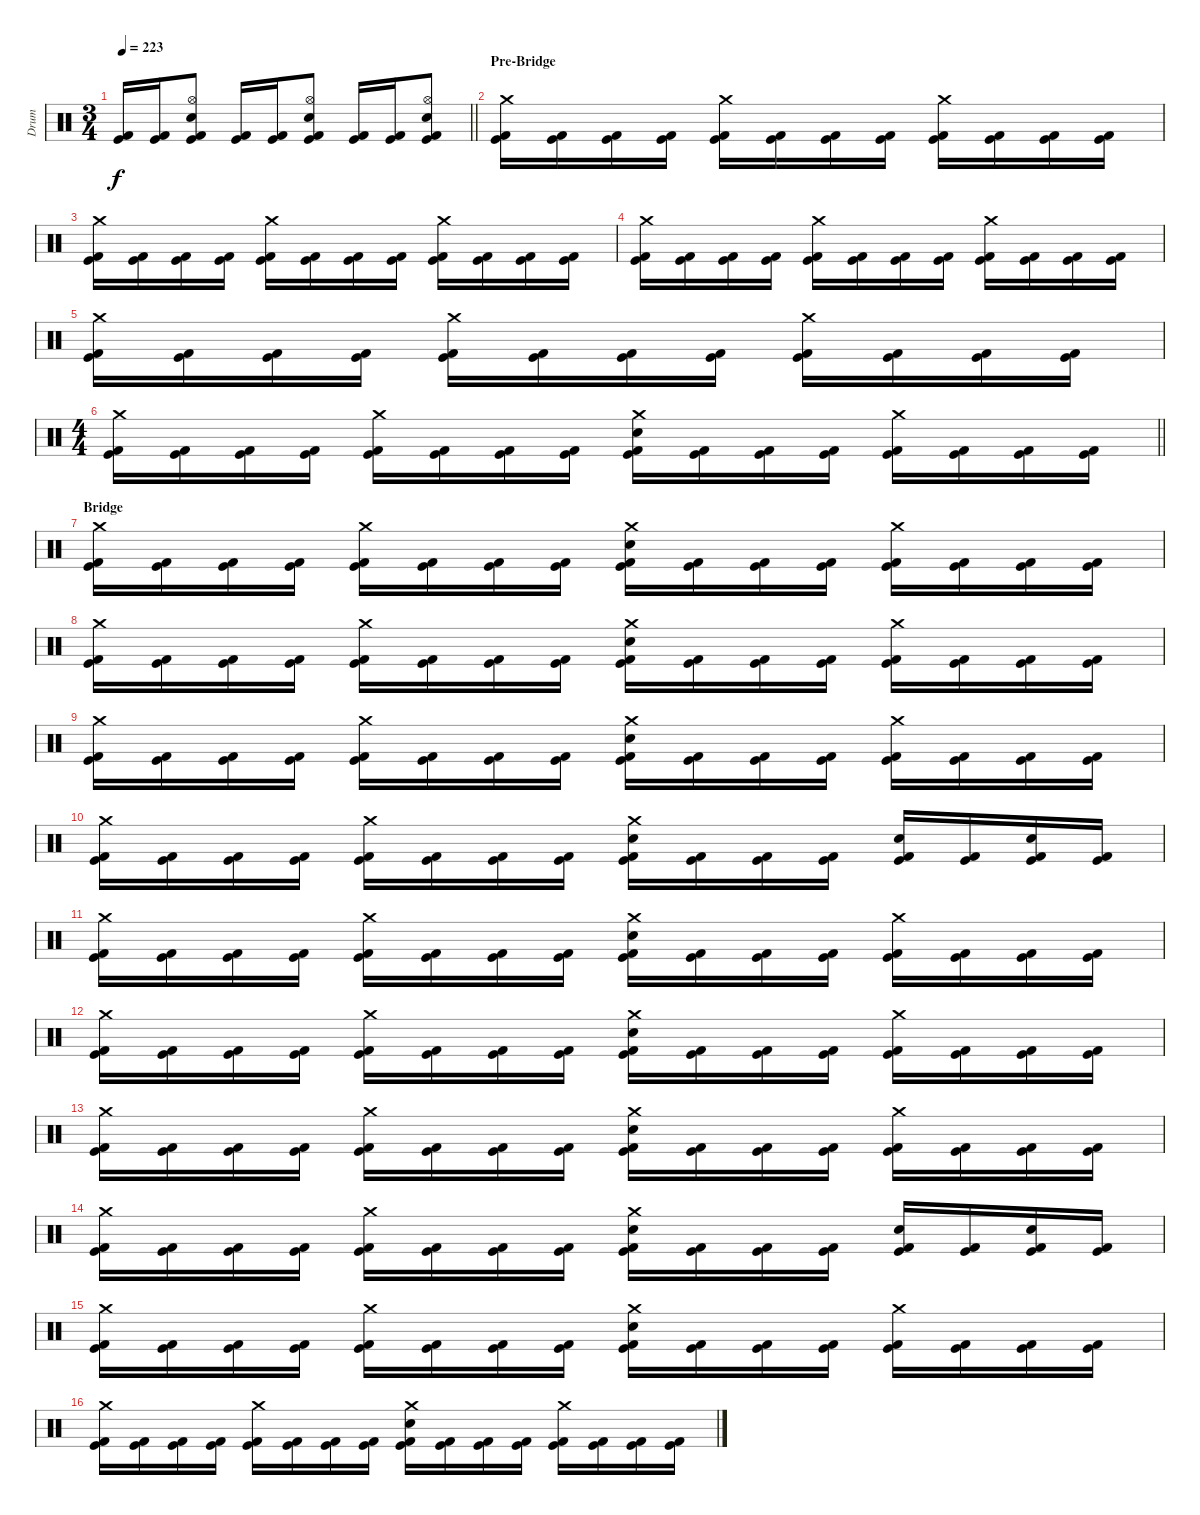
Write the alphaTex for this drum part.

\track ("Drum" "Drum") {instrument percussion}
\staff {score}
\articulation defaults
\ts (3 4)
\tempo 223
\clef neutral
\barLineRight lightlight
\ks c
("Kick (hit)" "Kick (hit) 2").16{dy f} ("Kick (hit)" "Kick (hit) 2").16 ("Hi-Hat (open)" "Electric Snare (hit)" "Kick (hit)" "Kick (hit) 2").8 ("Kick (hit)" "Kick (hit) 2").16 ("Kick (hit)" "Kick (hit) 2").16 ("Hi-Hat (open)" "Electric Snare (hit)" "Kick (hit)" "Kick (hit) 2").8 ("Kick (hit)" "Kick (hit) 2").16 ("Kick (hit)" "Kick (hit) 2").16 ("Hi-Hat (open)" "Electric Snare (hit)" "Kick (hit)" "Kick (hit) 2").8 |
\section ("" "Pre-Bridge")
("Crash medium (hit)" "Kick (hit)" "Kick (hit) 2").16 ("Kick (hit)" "Kick (hit) 2").16 ("Kick (hit)" "Kick (hit) 2").16 ("Kick (hit)" "Kick (hit) 2").16 ("Crash medium (hit)" "Kick (hit)" "Kick (hit) 2").16 ("Kick (hit)" "Kick (hit) 2").16 ("Kick (hit)" "Kick (hit) 2").16 ("Kick (hit)" "Kick (hit) 2").16 ("Crash medium (hit)" "Kick (hit)" "Kick (hit) 2").16 ("Kick (hit)" "Kick (hit) 2").16 ("Kick (hit)" "Kick (hit) 2").16 ("Kick (hit)" "Kick (hit) 2").16 |
("Crash medium (hit)" "Kick (hit)" "Kick (hit) 2").16 ("Kick (hit)" "Kick (hit) 2").16 ("Kick (hit)" "Kick (hit) 2").16 ("Kick (hit)" "Kick (hit) 2").16 ("Crash medium (hit)" "Kick (hit)" "Kick (hit) 2").16 ("Kick (hit)" "Kick (hit) 2").16 ("Kick (hit)" "Kick (hit) 2").16 ("Kick (hit)" "Kick (hit) 2").16 ("Crash medium (hit)" "Kick (hit)" "Kick (hit) 2").16 ("Kick (hit)" "Kick (hit) 2").16 ("Kick (hit)" "Kick (hit) 2").16 ("Kick (hit)" "Kick (hit) 2").16 |
("Crash medium (hit)" "Kick (hit)" "Kick (hit) 2").16 ("Kick (hit)" "Kick (hit) 2").16 ("Kick (hit)" "Kick (hit) 2").16 ("Kick (hit)" "Kick (hit) 2").16 ("Crash medium (hit)" "Kick (hit)" "Kick (hit) 2").16 ("Kick (hit)" "Kick (hit) 2").16 ("Kick (hit)" "Kick (hit) 2").16 ("Kick (hit)" "Kick (hit) 2").16 ("Crash medium (hit)" "Kick (hit)" "Kick (hit) 2").16 ("Kick (hit)" "Kick (hit) 2").16 ("Kick (hit)" "Kick (hit) 2").16 ("Kick (hit)" "Kick (hit) 2").16 |
("Crash medium (hit)" "Kick (hit)" "Kick (hit) 2").16 ("Kick (hit)" "Kick (hit) 2").16 ("Kick (hit)" "Kick (hit) 2").16 ("Kick (hit)" "Kick (hit) 2").16 ("Crash medium (hit)" "Kick (hit)" "Kick (hit) 2").16 ("Kick (hit)" "Kick (hit) 2").16 ("Kick (hit)" "Kick (hit) 2").16 ("Kick (hit)" "Kick (hit) 2").16 ("Crash medium (hit)" "Kick (hit)" "Kick (hit) 2").16 ("Kick (hit)" "Kick (hit) 2").16 ("Kick (hit)" "Kick (hit) 2").16 ("Kick (hit)" "Kick (hit) 2").16 |
\ts (4 4)
\barLineRight lightlight
("Crash medium (hit)" "Kick (hit)" "Kick (hit) 2").16 ("Kick (hit)" "Kick (hit) 2").16 ("Kick (hit)" "Kick (hit) 2").16 ("Kick (hit)" "Kick (hit) 2").16 ("Crash medium (hit)" "Kick (hit)" "Kick (hit) 2").16 ("Kick (hit)" "Kick (hit) 2").16 ("Kick (hit)" "Kick (hit) 2").16 ("Kick (hit)" "Kick (hit) 2").16 ("Crash medium (hit)" "Electric Snare (hit)" "Kick (hit)" "Kick (hit) 2").16 ("Kick (hit)" "Kick (hit) 2").16 ("Kick (hit)" "Kick (hit) 2").16 ("Kick (hit)" "Kick (hit) 2").16 ("Crash medium (hit)" "Kick (hit)" "Kick (hit) 2").16 ("Kick (hit)" "Kick (hit) 2").16 ("Kick (hit)" "Kick (hit) 2").16 ("Kick (hit)" "Kick (hit) 2").16 |
\section ("" "Bridge")
("Crash medium (hit)" "Kick (hit)" "Kick (hit) 2").16 ("Kick (hit)" "Kick (hit) 2").16 ("Kick (hit)" "Kick (hit) 2").16 ("Kick (hit)" "Kick (hit) 2").16 ("Crash medium (hit)" "Kick (hit)" "Kick (hit) 2").16 ("Kick (hit)" "Kick (hit) 2").16 ("Kick (hit)" "Kick (hit) 2").16 ("Kick (hit)" "Kick (hit) 2").16 ("Crash medium (hit)" "Electric Snare (hit)" "Kick (hit)" "Kick (hit) 2").16 ("Kick (hit)" "Kick (hit) 2").16 ("Kick (hit)" "Kick (hit) 2").16 ("Kick (hit)" "Kick (hit) 2").16 ("Crash medium (hit)" "Kick (hit)" "Kick (hit) 2").16 ("Kick (hit)" "Kick (hit) 2").16 ("Kick (hit)" "Kick (hit) 2").16 ("Kick (hit)" "Kick (hit) 2").16 |
("Crash medium (hit)" "Kick (hit)" "Kick (hit) 2").16 ("Kick (hit)" "Kick (hit) 2").16 ("Kick (hit)" "Kick (hit) 2").16 ("Kick (hit)" "Kick (hit) 2").16 ("Crash medium (hit)" "Kick (hit)" "Kick (hit) 2").16 ("Kick (hit)" "Kick (hit) 2").16 ("Kick (hit)" "Kick (hit) 2").16 ("Kick (hit)" "Kick (hit) 2").16 ("Crash medium (hit)" "Electric Snare (hit)" "Kick (hit)" "Kick (hit) 2").16 ("Kick (hit)" "Kick (hit) 2").16 ("Kick (hit)" "Kick (hit) 2").16 ("Kick (hit)" "Kick (hit) 2").16 ("Crash medium (hit)" "Kick (hit)" "Kick (hit) 2").16 ("Kick (hit)" "Kick (hit) 2").16 ("Kick (hit)" "Kick (hit) 2").16 ("Kick (hit)" "Kick (hit) 2").16 |
("Crash medium (hit)" "Kick (hit)" "Kick (hit) 2").16 ("Kick (hit)" "Kick (hit) 2").16 ("Kick (hit)" "Kick (hit) 2").16 ("Kick (hit)" "Kick (hit) 2").16 ("Crash medium (hit)" "Kick (hit)" "Kick (hit) 2").16 ("Kick (hit)" "Kick (hit) 2").16 ("Kick (hit)" "Kick (hit) 2").16 ("Kick (hit)" "Kick (hit) 2").16 ("Crash medium (hit)" "Electric Snare (hit)" "Kick (hit)" "Kick (hit) 2").16 ("Kick (hit)" "Kick (hit) 2").16 ("Kick (hit)" "Kick (hit) 2").16 ("Kick (hit)" "Kick (hit) 2").16 ("Crash medium (hit)" "Kick (hit)" "Kick (hit) 2").16 ("Kick (hit)" "Kick (hit) 2").16 ("Kick (hit)" "Kick (hit) 2").16 ("Kick (hit)" "Kick (hit) 2").16 |
("Crash medium (hit)" "Kick (hit)" "Kick (hit) 2").16 ("Kick (hit)" "Kick (hit) 2").16 ("Kick (hit)" "Kick (hit) 2").16 ("Kick (hit)" "Kick (hit) 2").16 ("Crash medium (hit)" "Kick (hit)" "Kick (hit) 2").16 ("Kick (hit)" "Kick (hit) 2").16 ("Kick (hit)" "Kick (hit) 2").16 ("Kick (hit)" "Kick (hit) 2").16 ("Crash medium (hit)" "Electric Snare (hit)" "Kick (hit)" "Kick (hit) 2").16 ("Kick (hit)" "Kick (hit) 2").16 ("Kick (hit)" "Kick (hit) 2").16 ("Kick (hit)" "Kick (hit) 2").16 ("Electric Snare (hit)" "Kick (hit)" "Kick (hit) 2").16 ("Kick (hit)" "Kick (hit) 2").16 ("Electric Snare (hit)" "Kick (hit)" "Kick (hit) 2").16 ("Kick (hit)" "Kick (hit) 2").16 |
("Crash medium (hit)" "Kick (hit)" "Kick (hit) 2").16 ("Kick (hit)" "Kick (hit) 2").16 ("Kick (hit)" "Kick (hit) 2").16 ("Kick (hit)" "Kick (hit) 2").16 ("Crash medium (hit)" "Kick (hit)" "Kick (hit) 2").16 ("Kick (hit)" "Kick (hit) 2").16 ("Kick (hit)" "Kick (hit) 2").16 ("Kick (hit)" "Kick (hit) 2").16 ("Crash medium (hit)" "Electric Snare (hit)" "Kick (hit)" "Kick (hit) 2").16 ("Kick (hit)" "Kick (hit) 2").16 ("Kick (hit)" "Kick (hit) 2").16 ("Kick (hit)" "Kick (hit) 2").16 ("Crash medium (hit)" "Kick (hit)" "Kick (hit) 2").16 ("Kick (hit)" "Kick (hit) 2").16 ("Kick (hit)" "Kick (hit) 2").16 ("Kick (hit)" "Kick (hit) 2").16 |
("Crash medium (hit)" "Kick (hit)" "Kick (hit) 2").16 ("Kick (hit)" "Kick (hit) 2").16 ("Kick (hit)" "Kick (hit) 2").16 ("Kick (hit)" "Kick (hit) 2").16 ("Crash medium (hit)" "Kick (hit)" "Kick (hit) 2").16 ("Kick (hit)" "Kick (hit) 2").16 ("Kick (hit)" "Kick (hit) 2").16 ("Kick (hit)" "Kick (hit) 2").16 ("Crash medium (hit)" "Electric Snare (hit)" "Kick (hit)" "Kick (hit) 2").16 ("Kick (hit)" "Kick (hit) 2").16 ("Kick (hit)" "Kick (hit) 2").16 ("Kick (hit)" "Kick (hit) 2").16 ("Crash medium (hit)" "Kick (hit)" "Kick (hit) 2").16 ("Kick (hit)" "Kick (hit) 2").16 ("Kick (hit)" "Kick (hit) 2").16 ("Kick (hit)" "Kick (hit) 2").16 |
("Crash medium (hit)" "Kick (hit)" "Kick (hit) 2").16 ("Kick (hit)" "Kick (hit) 2").16 ("Kick (hit)" "Kick (hit) 2").16 ("Kick (hit)" "Kick (hit) 2").16 ("Crash medium (hit)" "Kick (hit)" "Kick (hit) 2").16 ("Kick (hit)" "Kick (hit) 2").16 ("Kick (hit)" "Kick (hit) 2").16 ("Kick (hit)" "Kick (hit) 2").16 ("Crash medium (hit)" "Electric Snare (hit)" "Kick (hit)" "Kick (hit) 2").16 ("Kick (hit)" "Kick (hit) 2").16 ("Kick (hit)" "Kick (hit) 2").16 ("Kick (hit)" "Kick (hit) 2").16 ("Crash medium (hit)" "Kick (hit)" "Kick (hit) 2").16 ("Kick (hit)" "Kick (hit) 2").16 ("Kick (hit)" "Kick (hit) 2").16 ("Kick (hit)" "Kick (hit) 2").16 |
("Crash medium (hit)" "Kick (hit)" "Kick (hit) 2").16 ("Kick (hit)" "Kick (hit) 2").16 ("Kick (hit)" "Kick (hit) 2").16 ("Kick (hit)" "Kick (hit) 2").16 ("Crash medium (hit)" "Kick (hit)" "Kick (hit) 2").16 ("Kick (hit)" "Kick (hit) 2").16 ("Kick (hit)" "Kick (hit) 2").16 ("Kick (hit)" "Kick (hit) 2").16 ("Crash medium (hit)" "Electric Snare (hit)" "Kick (hit)" "Kick (hit) 2").16 ("Kick (hit)" "Kick (hit) 2").16 ("Kick (hit)" "Kick (hit) 2").16 ("Kick (hit)" "Kick (hit) 2").16 ("Electric Snare (hit)" "Kick (hit)" "Kick (hit) 2").16 ("Kick (hit)" "Kick (hit) 2").16 ("Electric Snare (hit)" "Kick (hit)" "Kick (hit) 2").16 ("Kick (hit)" "Kick (hit) 2").16 |
("Crash medium (hit)" "Kick (hit)" "Kick (hit) 2").16 ("Kick (hit)" "Kick (hit) 2").16 ("Kick (hit)" "Kick (hit) 2").16 ("Kick (hit)" "Kick (hit) 2").16 ("Crash medium (hit)" "Kick (hit)" "Kick (hit) 2").16 ("Kick (hit)" "Kick (hit) 2").16 ("Kick (hit)" "Kick (hit) 2").16 ("Kick (hit)" "Kick (hit) 2").16 ("Crash medium (hit)" "Electric Snare (hit)" "Kick (hit)" "Kick (hit) 2").16 ("Kick (hit)" "Kick (hit) 2").16 ("Kick (hit)" "Kick (hit) 2").16 ("Kick (hit)" "Kick (hit) 2").16 ("Crash medium (hit)" "Kick (hit)" "Kick (hit) 2").16 ("Kick (hit)" "Kick (hit) 2").16 ("Kick (hit)" "Kick (hit) 2").16 ("Kick (hit)" "Kick (hit) 2").16 |
("Crash medium (hit)" "Kick (hit)" "Kick (hit) 2").16 ("Kick (hit)" "Kick (hit) 2").16 ("Kick (hit)" "Kick (hit) 2").16 ("Kick (hit)" "Kick (hit) 2").16 ("Crash medium (hit)" "Kick (hit)" "Kick (hit) 2").16 ("Kick (hit)" "Kick (hit) 2").16 ("Kick (hit)" "Kick (hit) 2").16 ("Kick (hit)" "Kick (hit) 2").16 ("Crash medium (hit)" "Electric Snare (hit)" "Kick (hit)" "Kick (hit) 2").16 ("Kick (hit)" "Kick (hit) 2").16 ("Kick (hit)" "Kick (hit) 2").16 ("Kick (hit)" "Kick (hit) 2").16 ("Crash medium (hit)" "Kick (hit)" "Kick (hit) 2").16 ("Kick (hit)" "Kick (hit) 2").16 ("Kick (hit)" "Kick (hit) 2").16 ("Kick (hit)" "Kick (hit) 2").16
